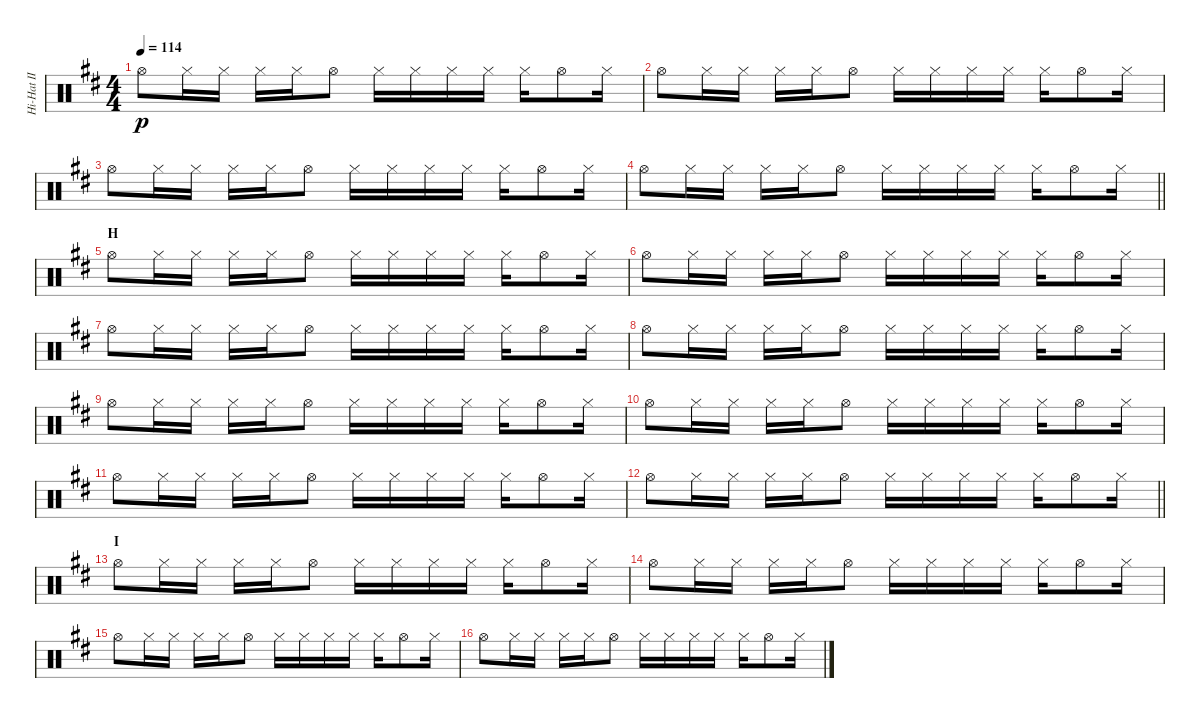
\track ("Hi-Hat II" "Hi-Hat II") {instrument percussion}
\staff {score}
\articulation defaults
\ts (4 4)
\tempo 114
\clef neutral
\ks d "Hi-Hat (open)".8{dy p} "Hi-Hat (closed)".16 "Hi-Hat (closed)".16 "Hi-Hat (closed)".16 "Hi-Hat (closed)".16 "Hi-Hat (open)".8 "Hi-Hat (closed)".16 "Hi-Hat (closed)".16 "Hi-Hat (closed)".16 "Hi-Hat (closed)".16 "Hi-Hat (closed)".16 "Hi-Hat (open)".8 "Hi-Hat (closed)".16
|
"Hi-Hat (open)".8 "Hi-Hat (closed)".16 "Hi-Hat (closed)".16 "Hi-Hat (closed)".16 "Hi-Hat (closed)".16 "Hi-Hat (open)".8 "Hi-Hat (closed)".16 "Hi-Hat (closed)".16 "Hi-Hat (closed)".16 "Hi-Hat (closed)".16 "Hi-Hat (closed)".16 "Hi-Hat (open)".8 "Hi-Hat (closed)".16 |
"Hi-Hat (open)".8 "Hi-Hat (closed)".16 "Hi-Hat (closed)".16 "Hi-Hat (closed)".16 "Hi-Hat (closed)".16 "Hi-Hat (open)".8 "Hi-Hat (closed)".16 "Hi-Hat (closed)".16 "Hi-Hat (closed)".16 "Hi-Hat (closed)".16 "Hi-Hat (closed)".16 "Hi-Hat (open)".8 "Hi-Hat (closed)".16 |
\barLineRight lightlight "Hi-Hat (open)".8 "Hi-Hat (closed)".16 "Hi-Hat (closed)".16 "Hi-Hat (closed)".16 "Hi-Hat (closed)".16 "Hi-Hat (open)".8 "Hi-Hat (closed)".16 "Hi-Hat (closed)".16 "Hi-Hat (closed)".16 "Hi-Hat (closed)".16 "Hi-Hat (closed)".16 "Hi-Hat (open)".8 "Hi-Hat (closed)".16
|
\section ("" "H")
"Hi-Hat (open)".8 "Hi-Hat (closed)".16 "Hi-Hat (closed)".16 "Hi-Hat (closed)".16 "Hi-Hat (closed)".16 "Hi-Hat (open)".8 "Hi-Hat (closed)".16 "Hi-Hat (closed)".16 "Hi-Hat (closed)".16 "Hi-Hat (closed)".16 "Hi-Hat (closed)".16 "Hi-Hat (open)".8 "Hi-Hat (closed)".16 |
"Hi-Hat (open)".8 "Hi-Hat (closed)".16 "Hi-Hat (closed)".16 "Hi-Hat (closed)".16 "Hi-Hat (closed)".16 "Hi-Hat (open)".8 "Hi-Hat (closed)".16 "Hi-Hat (closed)".16 "Hi-Hat (closed)".16 "Hi-Hat (closed)".16 "Hi-Hat (closed)".16 "Hi-Hat (open)".8 "Hi-Hat (closed)".16 |
"Hi-Hat (open)".8 "Hi-Hat (closed)".16 "Hi-Hat (closed)".16 "Hi-Hat (closed)".16 "Hi-Hat (closed)".16 "Hi-Hat (open)".8 "Hi-Hat (closed)".16 "Hi-Hat (closed)".16 "Hi-Hat (closed)".16 "Hi-Hat (closed)".16 "Hi-Hat (closed)".16 "Hi-Hat (open)".8 "Hi-Hat (closed)".16 |
"Hi-Hat (open)".8 "Hi-Hat (closed)".16 "Hi-Hat (closed)".16 "Hi-Hat (closed)".16 "Hi-Hat (closed)".16 "Hi-Hat (open)".8 "Hi-Hat (closed)".16 "Hi-Hat (closed)".16 "Hi-Hat (closed)".16 "Hi-Hat (closed)".16 "Hi-Hat (closed)".16 "Hi-Hat (open)".8 "Hi-Hat (closed)".16 |
"Hi-Hat (open)".8 "Hi-Hat (closed)".16 "Hi-Hat (closed)".16 "Hi-Hat (closed)".16 "Hi-Hat (closed)".16 "Hi-Hat (open)".8 "Hi-Hat (closed)".16 "Hi-Hat (closed)".16 "Hi-Hat (closed)".16 "Hi-Hat (closed)".16 "Hi-Hat (closed)".16 "Hi-Hat (open)".8 "Hi-Hat (closed)".16 |
"Hi-Hat (open)".8 "Hi-Hat (closed)".16 "Hi-Hat (closed)".16 "Hi-Hat (closed)".16 "Hi-Hat (closed)".16 "Hi-Hat (open)".8 "Hi-Hat (closed)".16 "Hi-Hat (closed)".16 "Hi-Hat (closed)".16 "Hi-Hat (closed)".16 "Hi-Hat (closed)".16 "Hi-Hat (open)".8 "Hi-Hat (closed)".16 |
"Hi-Hat (open)".8 "Hi-Hat (closed)".16 "Hi-Hat (closed)".16 "Hi-Hat (closed)".16 "Hi-Hat (closed)".16 "Hi-Hat (open)".8 "Hi-Hat (closed)".16 "Hi-Hat (closed)".16 "Hi-Hat (closed)".16 "Hi-Hat (closed)".16 "Hi-Hat (closed)".16 "Hi-Hat (open)".8 "Hi-Hat (closed)".16 |
\barLineRight lightlight "Hi-Hat (open)".8 "Hi-Hat (closed)".16 "Hi-Hat (closed)".16 "Hi-Hat (closed)".16 "Hi-Hat (closed)".16 "Hi-Hat (open)".8 "Hi-Hat (closed)".16 "Hi-Hat (closed)".16 "Hi-Hat (closed)".16 "Hi-Hat (closed)".16 "Hi-Hat (closed)".16 "Hi-Hat (open)".8 "Hi-Hat (closed)".16
|
\section ("" "I")
"Hi-Hat (open)".8 "Hi-Hat (closed)".16 "Hi-Hat (closed)".16 "Hi-Hat (closed)".16 "Hi-Hat (closed)".16 "Hi-Hat (open)".8 "Hi-Hat (closed)".16 "Hi-Hat (closed)".16 "Hi-Hat (closed)".16 "Hi-Hat (closed)".16 "Hi-Hat (closed)".16 "Hi-Hat (open)".8 "Hi-Hat (closed)".16 |
"Hi-Hat (open)".8 "Hi-Hat (closed)".16 "Hi-Hat (closed)".16 "Hi-Hat (closed)".16 "Hi-Hat (closed)".16 "Hi-Hat (open)".8 "Hi-Hat (closed)".16 "Hi-Hat (closed)".16 "Hi-Hat (closed)".16 "Hi-Hat (closed)".16 "Hi-Hat (closed)".16 "Hi-Hat (open)".8 "Hi-Hat (closed)".16 |
"Hi-Hat (open)".8 "Hi-Hat (closed)".16 "Hi-Hat (closed)".16 "Hi-Hat (closed)".16 "Hi-Hat (closed)".16 "Hi-Hat (open)".8 "Hi-Hat (closed)".16 "Hi-Hat (closed)".16 "Hi-Hat (closed)".16 "Hi-Hat (closed)".16 "Hi-Hat (closed)".16 "Hi-Hat (open)".8 "Hi-Hat (closed)".16 |
"Hi-Hat (open)".8 "Hi-Hat (closed)".16 "Hi-Hat (closed)".16 "Hi-Hat (closed)".16 "Hi-Hat (closed)".16 "Hi-Hat (open)".8 "Hi-Hat (closed)".16 "Hi-Hat (closed)".16 "Hi-Hat (closed)".16 "Hi-Hat (closed)".16 "Hi-Hat (closed)".16 "Hi-Hat (open)".8 "Hi-Hat (closed)".16
